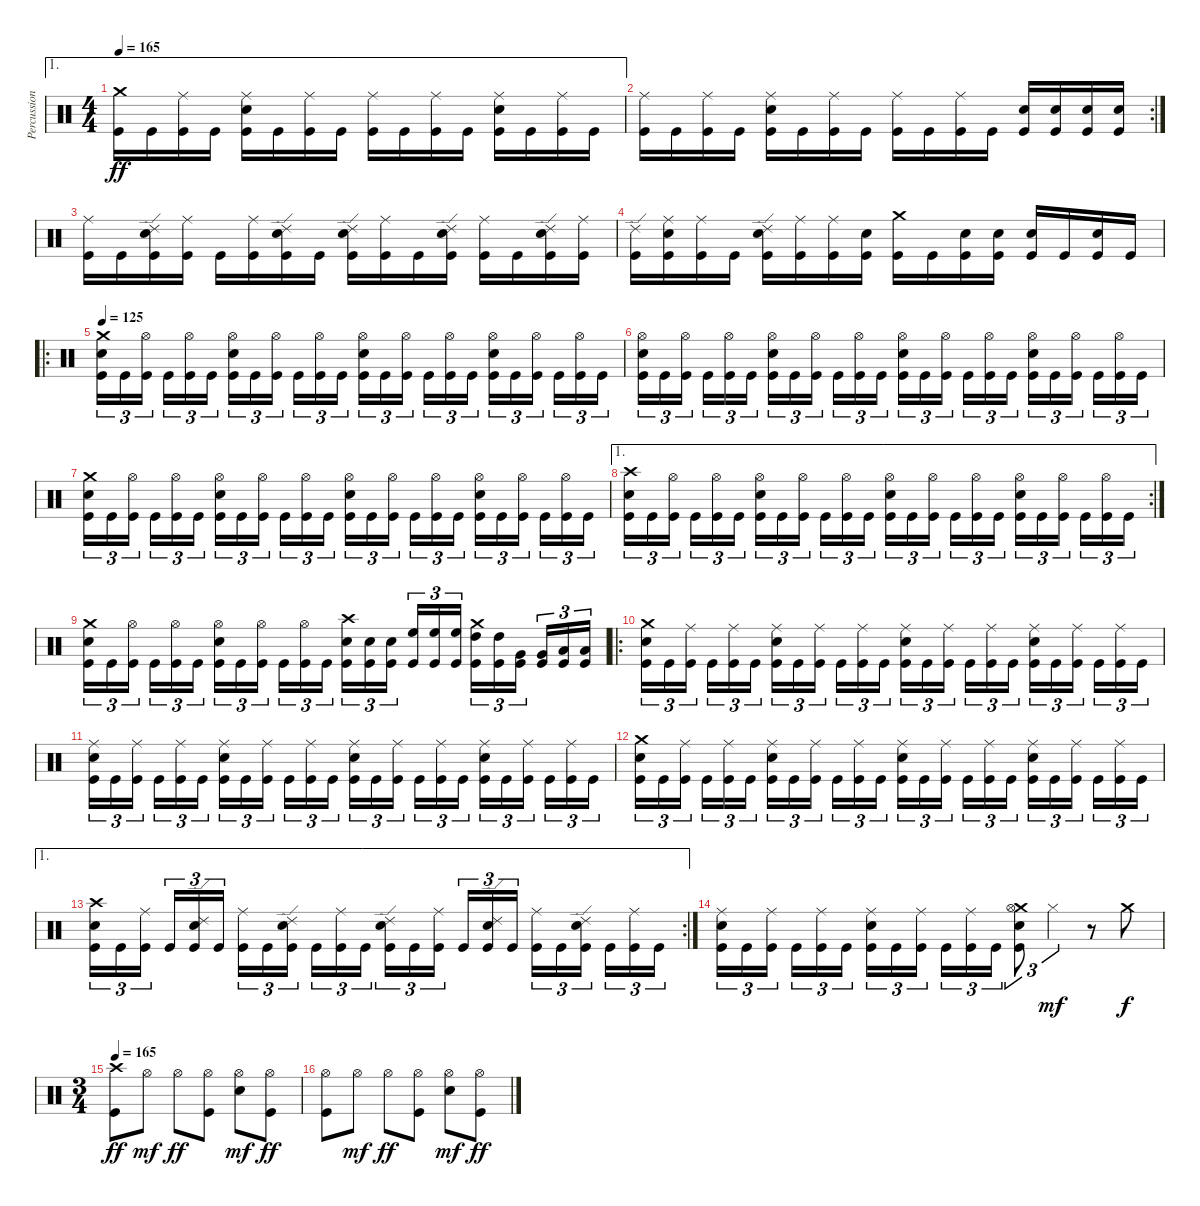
\track ("Percussion" "Percussion") {instrument percussion}
\staff {score}
\articulation defaults
\ae 1
\ts (4 4)
\tempo 165
\clef neutral
\ks c
("Crash medium (hit)" "Kick (hit)").16{dy ff} "Kick (hit)".16 ("Ride (middle)" "Kick (hit)").16 "Kick (hit)".16 ("Ride (middle)" "Electric Snare (hit)" "Kick (hit)").16 "Kick (hit)".16 ("Ride (middle)" "Kick (hit)").16 "Kick (hit)".16 ("Ride (middle)" "Kick (hit)").16 "Kick (hit)".16 ("Ride (middle)" "Kick (hit)").16 "Kick (hit)".16 ("Ride (middle)" "Electric Snare (hit)" "Kick (hit)").16 "Kick (hit)".16 ("Ride (middle)" "Kick (hit)").16 "Kick (hit)".16 |
\rc 2
("Ride (middle)" "Kick (hit)").16 "Kick (hit)".16 ("Ride (middle)" "Kick (hit)").16 "Kick (hit)".16 ("Ride (middle)" "Electric Snare (hit)" "Kick (hit)").16 "Kick (hit)".16 ("Ride (middle)" "Kick (hit)").16 "Kick (hit)".16 ("Ride (middle)" "Kick (hit)").16 "Kick (hit)".16 ("Ride (middle)" "Kick (hit)").16 "Kick (hit)".16 ("Electric Snare (hit)" "Kick (hit)").16 ("Electric Snare (hit)" "Kick (hit)").16 ("Electric Snare (hit)" "Kick (hit)").16 ("Electric Snare (hit)" "Kick (hit)").16 |
("Ride (middle)" "Kick (hit)").16 "Kick (hit)".16 ("Ride (edge) 2" "Electric Snare (hit)" "Kick (hit)").16 ("Ride (middle)" "Kick (hit)").16 "Kick (hit)".16 ("Ride (middle)" "Kick (hit)").16 ("Ride (edge) 2" "Electric Snare (hit)" "Kick (hit)").16 "Kick (hit)".16 ("Ride (edge) 2" "Electric Snare (hit)" "Kick (hit)").16 ("Ride (middle)" "Kick (hit)").16 "Kick (hit)".16 ("Ride (edge) 2" "Electric Snare (hit)" "Kick (hit)").16 ("Ride (middle)" "Kick (hit)").16 "Kick (hit)".16 ("Ride (edge) 2" "Electric Snare (hit)" "Kick (hit)").16 ("Ride (middle)" "Kick (hit)").16 |
("Ride (edge) 2" "Kick (hit)").16 ("Ride (middle)" "Electric Snare (hit)" "Kick (hit)").16 ("Ride (middle)" "Kick (hit)").16 "Kick (hit)".16 ("Ride (edge) 2" "Electric Snare (hit)" "Kick (hit)").16 ("Ride (middle)" "Kick (hit)").16 ("Ride (middle)" "Kick (hit)").16 ("Electric Snare (hit)" "Kick (hit)").16 ("Crash medium (hit)" "Kick (hit)").16 "Kick (hit)".16 ("Electric Snare (hit)" "Kick (hit)").16 ("Electric Snare (hit)" "Kick (hit)").16 ("Electric Snare (hit)" "Kick (hit)").16 "Kick (hit)".16 ("Electric Snare (hit)" "Kick (hit)").16 "Kick (hit)".16 |
\ro
\tempo 125
("Crash medium (hit)" "Electric Snare (hit)" "Kick (hit)").16{tu (3 2)} "Kick (hit)".16{tu (3 2)} ("Hi-Hat (open)" "Kick (hit)").16{tu (3 2) beam splitsecondary} "Kick (hit)".16{tu (3 2)} ("Hi-Hat (open)" "Kick (hit)").16{tu (3 2)} "Kick (hit)".16{tu (3 2)} ("Hi-Hat (open)" "Electric Snare (hit)" "Kick (hit)").16{tu (3 2)} "Kick (hit)".16{tu (3 2)} ("Hi-Hat (open)" "Kick (hit)").16{tu (3 2) beam splitsecondary} "Kick (hit)".16{tu (3 2)} ("Hi-Hat (open)" "Kick (hit)").16{tu (3 2)} "Kick (hit)".16{tu (3 2)} ("Hi-Hat (open)" "Electric Snare (hit)" "Kick (hit)").16{tu (3 2)} "Kick (hit)".16{tu (3 2)} ("Hi-Hat (open)" "Kick (hit)").16{tu (3 2) beam splitsecondary} "Kick (hit)".16{tu (3 2)} ("Hi-Hat (open)" "Kick (hit)").16{tu (3 2)} "Kick (hit)".16{tu (3 2)} ("Hi-Hat (open)" "Electric Snare (hit)" "Kick (hit)").16{tu (3 2)} "Kick (hit)".16{tu (3 2)} ("Hi-Hat (open)" "Kick (hit)").16{tu (3 2) beam splitsecondary} "Kick (hit)".16{tu (3 2)} ("Hi-Hat (open)" "Kick (hit)").16{tu (3 2)} "Kick (hit)".16{tu (3 2)} |
("Hi-Hat (open)" "Electric Snare (hit)" "Kick (hit)").16{tu (3 2)} "Kick (hit)".16{tu (3 2)} ("Hi-Hat (open)" "Kick (hit)").16{tu (3 2) beam splitsecondary} "Kick (hit)".16{tu (3 2)} ("Hi-Hat (open)" "Kick (hit)").16{tu (3 2)} "Kick (hit)".16{tu (3 2)} ("Hi-Hat (open)" "Electric Snare (hit)" "Kick (hit)").16{tu (3 2)} "Kick (hit)".16{tu (3 2)} ("Hi-Hat (open)" "Kick (hit)").16{tu (3 2) beam splitsecondary} "Kick (hit)".16{tu (3 2)} ("Hi-Hat (open)" "Kick (hit)").16{tu (3 2)} "Kick (hit)".16{tu (3 2)} ("Hi-Hat (open)" "Electric Snare (hit)" "Kick (hit)").16{tu (3 2)} "Kick (hit)".16{tu (3 2)} ("Hi-Hat (open)" "Kick (hit)").16{tu (3 2) beam splitsecondary} "Kick (hit)".16{tu (3 2)} ("Hi-Hat (open)" "Kick (hit)").16{tu (3 2)} "Kick (hit)".16{tu (3 2)} ("Hi-Hat (open)" "Electric Snare (hit)" "Kick (hit)").16{tu (3 2)} "Kick (hit)".16{tu (3 2)} ("Hi-Hat (open)" "Kick (hit)").16{tu (3 2) beam splitsecondary} "Kick (hit)".16{tu (3 2)} ("Hi-Hat (open)" "Kick (hit)").16{tu (3 2)} "Kick (hit)".16{tu (3 2)} |
("Crash medium (hit)" "Electric Snare (hit)" "Kick (hit)").16{tu (3 2)} "Kick (hit)".16{tu (3 2)} ("Hi-Hat (open)" "Kick (hit)").16{tu (3 2) beam splitsecondary} "Kick (hit)".16{tu (3 2)} ("Hi-Hat (open)" "Kick (hit)").16{tu (3 2)} "Kick (hit)".16{tu (3 2)} ("Hi-Hat (open)" "Electric Snare (hit)" "Kick (hit)").16{tu (3 2)} "Kick (hit)".16{tu (3 2)} ("Hi-Hat (open)" "Kick (hit)").16{tu (3 2) beam splitsecondary} "Kick (hit)".16{tu (3 2)} ("Hi-Hat (open)" "Kick (hit)").16{tu (3 2)} "Kick (hit)".16{tu (3 2)} ("Hi-Hat (open)" "Electric Snare (hit)" "Kick (hit)").16{tu (3 2)} "Kick (hit)".16{tu (3 2)} ("Hi-Hat (open)" "Kick (hit)").16{tu (3 2) beam splitsecondary} "Kick (hit)".16{tu (3 2)} ("Hi-Hat (open)" "Kick (hit)").16{tu (3 2)} "Kick (hit)".16{tu (3 2)} ("Hi-Hat (open)" "Electric Snare (hit)" "Kick (hit)").16{tu (3 2)} "Kick (hit)".16{tu (3 2)} ("Hi-Hat (open)" "Kick (hit)").16{tu (3 2) beam splitsecondary} "Kick (hit)".16{tu (3 2)} ("Hi-Hat (open)" "Kick (hit)").16{tu (3 2)} "Kick (hit)".16{tu (3 2)} |
\ae 1
\rc 2
("Crash high (hit)" "Electric Snare (hit)" "Kick (hit)").16{tu (3 2)} "Kick (hit)".16{tu (3 2)} ("Hi-Hat (open)" "Kick (hit)").16{tu (3 2) beam splitsecondary} "Kick (hit)".16{tu (3 2)} ("Hi-Hat (open)" "Kick (hit)").16{tu (3 2)} "Kick (hit)".16{tu (3 2)} ("Hi-Hat (open)" "Electric Snare (hit)" "Kick (hit)").16{tu (3 2)} "Kick (hit)".16{tu (3 2)} ("Hi-Hat (open)" "Kick (hit)").16{tu (3 2) beam splitsecondary} "Kick (hit)".16{tu (3 2)} ("Hi-Hat (open)" "Kick (hit)").16{tu (3 2)} "Kick (hit)".16{tu (3 2)} ("Hi-Hat (open)" "Electric Snare (hit)" "Kick (hit)").16{tu (3 2)} "Kick (hit)".16{tu (3 2)} ("Hi-Hat (open)" "Kick (hit)").16{tu (3 2) beam splitsecondary} "Kick (hit)".16{tu (3 2)} ("Hi-Hat (open)" "Kick (hit)").16{tu (3 2)} "Kick (hit)".16{tu (3 2)} ("Hi-Hat (open)" "Electric Snare (hit)" "Kick (hit)").16{tu (3 2)} "Kick (hit)".16{tu (3 2)} ("Hi-Hat (open)" "Kick (hit)").16{tu (3 2) beam splitsecondary} "Kick (hit)".16{tu (3 2)} ("Hi-Hat (open)" "Kick (hit)").16{tu (3 2)} "Kick (hit)".16{tu (3 2)} |
("Crash medium (hit)" "Electric Snare (hit)" "Kick (hit)").16{tu (3 2)} "Kick (hit)".16{tu (3 2)} ("Hi-Hat (open)" "Kick (hit)").16{tu (3 2) beam splitsecondary} "Kick (hit)".16{tu (3 2)} ("Hi-Hat (open)" "Kick (hit)").16{tu (3 2)} "Kick (hit)".16{tu (3 2)} ("Hi-Hat (open)" "Electric Snare (hit)" "Kick (hit)").16{tu (3 2)} "Kick (hit)".16{tu (3 2)} ("Hi-Hat (open)" "Kick (hit)").16{tu (3 2) beam splitsecondary} "Kick (hit)".16{tu (3 2)} ("Hi-Hat (open)" "Kick (hit)").16{tu (3 2)} "Kick (hit)".16{tu (3 2)} ("Crash high (hit)" "Electric Snare (hit)" "Kick (hit)").16{tu (3 2)} ("Electric Snare (hit)" "Kick (hit)").16{tu (3 2)} ("Electric Snare (hit)" "Kick (hit)").16{tu (3 2) beam splitsecondary} ("High Floor Tom (hit)" "Kick (hit)").16{tu (3 2)} ("High Floor Tom (hit)" "Kick (hit)").16{tu (3 2)} ("High Floor Tom (hit)" "Kick (hit)").16{tu (3 2)} ("Crash medium (hit)" "High Tom (hit)" "Kick (hit)").16{tu (3 2)} ("High Tom (hit)" "Kick (hit)").16{tu (3 2)} ("Very Low Tom (hit)" "Kick (hit)").16{tu (3 2) beam splitsecondary} ("Very Low Tom (hit)" "Kick (hit)").16{tu (3 2)} ("Low Floor Tom (hit)" "Kick (hit)").16{tu (3 2)} ("Low Floor Tom (hit)" "Kick (hit)").16{tu (3 2)} |
\ro
("Crash medium (hit)" "Electric Snare (hit)" "Kick (hit)").16{tu (3 2)} "Kick (hit)".16{tu (3 2)} ("Ride (middle)" "Kick (hit)").16{tu (3 2) beam splitsecondary} "Kick (hit)".16{tu (3 2)} ("Ride (middle)" "Kick (hit)").16{tu (3 2)} "Kick (hit)".16{tu (3 2)} ("Ride (middle)" "Electric Snare (hit)" "Kick (hit)").16{tu (3 2)} "Kick (hit)".16{tu (3 2)} ("Ride (middle)" "Kick (hit)").16{tu (3 2) beam splitsecondary} "Kick (hit)".16{tu (3 2)} ("Ride (middle)" "Kick (hit)").16{tu (3 2)} "Kick (hit)".16{tu (3 2)} ("Ride (middle)" "Electric Snare (hit)" "Kick (hit)").16{tu (3 2)} "Kick (hit)".16{tu (3 2)} ("Ride (middle)" "Kick (hit)").16{tu (3 2) beam splitsecondary} "Kick (hit)".16{tu (3 2)} ("Ride (middle)" "Kick (hit)").16{tu (3 2)} "Kick (hit)".16{tu (3 2)} ("Ride (middle)" "Electric Snare (hit)" "Kick (hit)").16{tu (3 2)} "Kick (hit)".16{tu (3 2)} ("Ride (middle)" "Kick (hit)").16{tu (3 2) beam splitsecondary} "Kick (hit)".16{tu (3 2)} ("Ride (middle)" "Kick (hit)").16{tu (3 2)} "Kick (hit)".16{tu (3 2)} |
("Ride (middle)" "Electric Snare (hit)" "Kick (hit)").16{tu (3 2)} "Kick (hit)".16{tu (3 2)} ("Ride (middle)" "Kick (hit)").16{tu (3 2) beam splitsecondary} "Kick (hit)".16{tu (3 2)} ("Ride (middle)" "Kick (hit)").16{tu (3 2)} "Kick (hit)".16{tu (3 2)} ("Ride (middle)" "Electric Snare (hit)" "Kick (hit)").16{tu (3 2)} "Kick (hit)".16{tu (3 2)} ("Ride (middle)" "Kick (hit)").16{tu (3 2) beam splitsecondary} "Kick (hit)".16{tu (3 2)} ("Ride (middle)" "Kick (hit)").16{tu (3 2)} "Kick (hit)".16{tu (3 2)} ("Ride (middle)" "Electric Snare (hit)" "Kick (hit)").16{tu (3 2)} "Kick (hit)".16{tu (3 2)} ("Ride (middle)" "Kick (hit)").16{tu (3 2) beam splitsecondary} "Kick (hit)".16{tu (3 2)} ("Ride (middle)" "Kick (hit)").16{tu (3 2)} "Kick (hit)".16{tu (3 2)} ("Ride (middle)" "Electric Snare (hit)" "Kick (hit)").16{tu (3 2)} "Kick (hit)".16{tu (3 2)} ("Ride (middle)" "Kick (hit)").16{tu (3 2) beam splitsecondary} "Kick (hit)".16{tu (3 2)} ("Ride (middle)" "Kick (hit)").16{tu (3 2)} "Kick (hit)".16{tu (3 2)} |
("Crash medium (hit)" "Electric Snare (hit)" "Kick (hit)").16{tu (3 2)} "Kick (hit)".16{tu (3 2)} ("Ride (middle)" "Kick (hit)").16{tu (3 2) beam splitsecondary} "Kick (hit)".16{tu (3 2)} ("Ride (middle)" "Kick (hit)").16{tu (3 2)} "Kick (hit)".16{tu (3 2)} ("Ride (middle)" "Electric Snare (hit)" "Kick (hit)").16{tu (3 2)} "Kick (hit)".16{tu (3 2)} ("Ride (middle)" "Kick (hit)").16{tu (3 2) beam splitsecondary} "Kick (hit)".16{tu (3 2)} ("Ride (middle)" "Kick (hit)").16{tu (3 2)} "Kick (hit)".16{tu (3 2)} ("Ride (middle)" "Electric Snare (hit)" "Kick (hit)").16{tu (3 2)} "Kick (hit)".16{tu (3 2)} ("Ride (middle)" "Kick (hit)").16{tu (3 2) beam splitsecondary} "Kick (hit)".16{tu (3 2)} ("Ride (middle)" "Kick (hit)").16{tu (3 2)} "Kick (hit)".16{tu (3 2)} ("Ride (middle)" "Electric Snare (hit)" "Kick (hit)").16{tu (3 2)} "Kick (hit)".16{tu (3 2)} ("Ride (middle)" "Kick (hit)").16{tu (3 2) beam splitsecondary} "Kick (hit)".16{tu (3 2)} ("Ride (middle)" "Kick (hit)").16{tu (3 2)} "Kick (hit)".16{tu (3 2)} |
\ae 1
\rc 2
("Crash high (hit)" "Electric Snare (hit)" "Kick (hit)").16{tu (3 2)} "Kick (hit)".16{tu (3 2)} ("Ride (middle)" "Kick (hit)").16{tu (3 2) beam splitsecondary} "Kick (hit)".16{tu (3 2)} ("Ride (edge) 2" "Electric Snare (hit)" "Kick (hit)").16{tu (3 2)} "Kick (hit)".16{tu (3 2)} ("Ride (middle)" "Kick (hit)").16{tu (3 2)} "Kick (hit)".16{tu (3 2)} ("Ride (edge) 2" "Electric Snare (hit)" "Kick (hit)").16{tu (3 2) beam splitsecondary} "Kick (hit)".16{tu (3 2)} ("Ride (middle)" "Kick (hit)").16{tu (3 2)} "Kick (hit)".16{tu (3 2)} ("Ride (edge) 2" "Electric Snare (hit)" "Kick (hit)").16{tu (3 2)} "Kick (hit)".16{tu (3 2)} ("Ride (middle)" "Kick (hit)").16{tu (3 2) beam splitsecondary} "Kick (hit)".16{tu (3 2)} ("Ride (edge) 2" "Electric Snare (hit)" "Kick (hit)").16{tu (3 2)} "Kick (hit)".16{tu (3 2)} ("Ride (middle)" "Kick (hit)").16{tu (3 2)} "Kick (hit)".16{tu (3 2)} ("Ride (edge) 2" "Electric Snare (hit)" "Kick (hit)").16{tu (3 2) beam splitsecondary} "Kick (hit)".16{tu (3 2)} ("Ride (middle)" "Kick (hit)").16{tu (3 2)} "Kick (hit)".16{tu (3 2)} |
("Ride (middle)" "Electric Snare (hit)" "Kick (hit)").16{tu (3 2)} "Kick (hit)".16{tu (3 2)} ("Ride (middle)" "Kick (hit)").16{tu (3 2) beam splitsecondary} "Kick (hit)".16{tu (3 2)} ("Ride (middle)" "Kick (hit)").16{tu (3 2)} "Kick (hit)".16{tu (3 2)} ("Ride (middle)" "Electric Snare (hit)" "Kick (hit)").16{tu (3 2)} "Kick (hit)".16{tu (3 2)} ("Ride (middle)" "Kick (hit)").16{tu (3 2) beam splitsecondary} "Kick (hit)".16{tu (3 2)} ("Ride (middle)" "Kick (hit)").16{tu (3 2)} "Kick (hit)".16{tu (3 2)} ("Crash medium (hit)" "Hi-Hat (open)" "Electric Snare (hit)" "Kick (hit)").8{tu (3 2)} "Hi-Hat (closed)".4{tu (3 2) dy mf} r.8 "Crash medium (hit)".8{dy f} |
\ts (3 4)
\tempo 165
("Crash high (hit)" "Kick (hit)").8{dy ff} "Hi-Hat (open)".8{dy mf} "Hi-Hat (open)".8{dy ff} ("Hi-Hat (open)" "Kick (hit)").8 ("Hi-Hat (open)" "Electric Snare (hit)").8{dy mf} ("Hi-Hat (open)" "Kick (hit)").8{dy ff} |
("Hi-Hat (open)" "Kick (hit)").8 "Hi-Hat (open)".8{dy mf} "Hi-Hat (open)".8{dy ff} ("Hi-Hat (open)" "Kick (hit)").8 ("Hi-Hat (open)" "Electric Snare (hit)").8{dy mf} ("Hi-Hat (open)" "Kick (hit)").8{dy ff}
